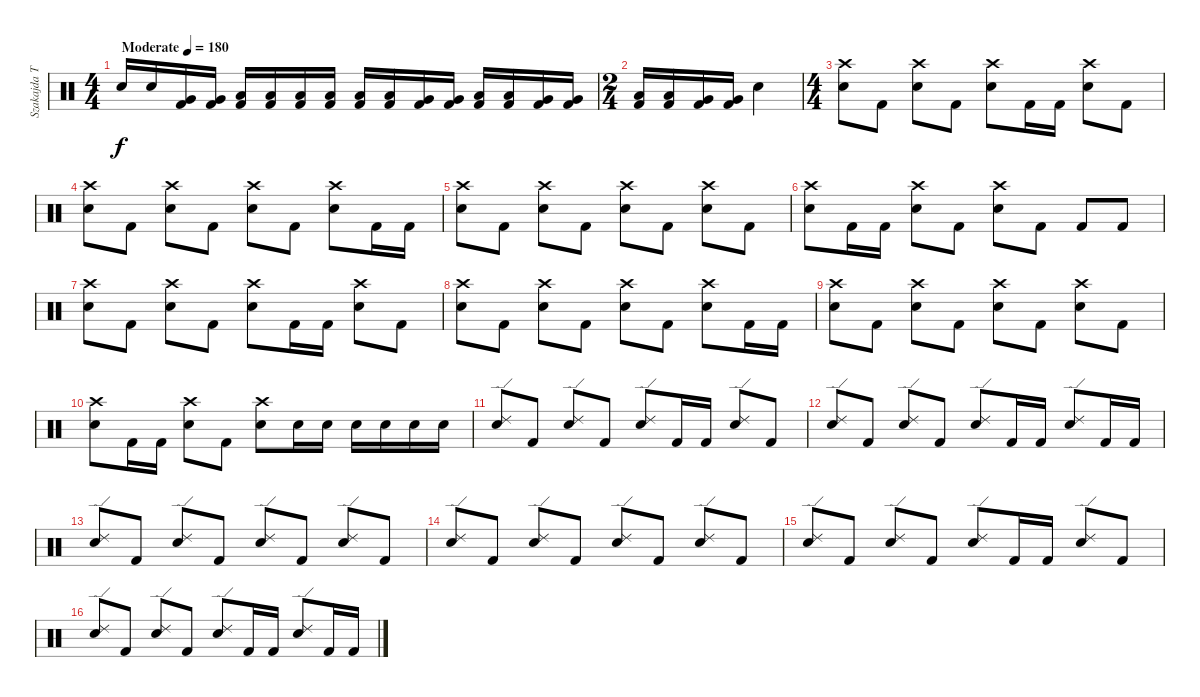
\track ("Szakajda Tibi" "Szakajda T") {instrument percussion}
\staff {score}
\articulation defaults
\ts (4 4)
\tempo (180 "Moderate")
\clef neutral
\ks c "Electric Snare (hit)".16{dy f} "Electric Snare (hit)".16
("Very Low Tom (hit)" "Kick (hit) 2").16 ("Very Low Tom (hit)" "Kick (hit) 2").16 ("Low Tom (hit)" "Kick (hit) 2").16 ("Low Tom (hit)" "Kick (hit) 2").16 ("Low Floor Tom (hit)" "Kick (hit) 2").16 ("Low Floor Tom (hit)" "Kick (hit) 2").16 ("Low Tom (hit)" "Kick (hit) 2").16 ("Low Tom (hit)" "Kick (hit) 2").16 ("Very Low Tom (hit)" "Kick (hit) 2").16 ("Very Low Tom (hit)" "Kick (hit) 2").16 ("Low Floor Tom (hit)" "Kick (hit) 2").16 ("Low Floor Tom (hit)" "Kick (hit) 2").16 ("Very Low Tom (hit)" "Kick (hit) 2").16 ("Very Low Tom (hit)" "Kick (hit) 2").16 |
\ts (2 4)
("Low Floor Tom (hit)" "Kick (hit) 2").16 ("Low Floor Tom (hit)" "Kick (hit) 2").16 ("Very Low Tom (hit)" "Kick (hit) 2").16 ("Very Low Tom (hit)" "Kick (hit) 2").16 "Electric Snare (hit)".4 |
\ts (4 4)
("Crash high (hit)" "Electric Snare (hit)").8 "Kick (hit) 2".8 ("Crash high (hit)" "Electric Snare (hit)").8 "Kick (hit) 2".8 ("Crash high (hit)" "Electric Snare (hit)").8 "Kick (hit) 2".16 "Kick (hit) 2".16 ("Crash high (hit)" "Electric Snare (hit)").8 "Kick (hit) 2".8 |
("Crash high (hit)" "Electric Snare (hit)").8 "Kick (hit) 2".8 ("Crash high (hit)" "Electric Snare (hit)").8 "Kick (hit) 2".8 ("Crash high (hit)" "Electric Snare (hit)").8 "Kick (hit) 2".8 ("Crash high (hit)" "Electric Snare (hit)").8 "Kick (hit) 2".16 "Kick (hit) 2".16 |
("Crash high (hit)" "Electric Snare (hit)").8 "Kick (hit) 2".8 ("Crash high (hit)" "Electric Snare (hit)").8 "Kick (hit) 2".8 ("Crash high (hit)" "Electric Snare (hit)").8 "Kick (hit) 2".8 ("Crash high (hit)" "Electric Snare (hit)").8 "Kick (hit) 2".8 |
("Crash high (hit)" "Electric Snare (hit)").8 "Kick (hit) 2".16 "Kick (hit) 2".16 ("Crash high (hit)" "Electric Snare (hit)").8 "Kick (hit) 2".8 ("Crash high (hit)" "Electric Snare (hit)").8 "Kick (hit) 2".8 "Kick (hit) 2".8 "Kick (hit) 2".8 |
("Crash high (hit)" "Electric Snare (hit)").8 "Kick (hit) 2".8 ("Crash high (hit)" "Electric Snare (hit)").8 "Kick (hit) 2".8 ("Crash high (hit)" "Electric Snare (hit)").8 "Kick (hit) 2".16 "Kick (hit) 2".16 ("Crash high (hit)" "Electric Snare (hit)").8 "Kick (hit) 2".8 |
("Crash high (hit)" "Electric Snare (hit)").8 "Kick (hit) 2".8 ("Crash high (hit)" "Electric Snare (hit)").8 "Kick (hit) 2".8 ("Crash high (hit)" "Electric Snare (hit)").8 "Kick (hit) 2".8 ("Crash high (hit)" "Electric Snare (hit)").8 "Kick (hit) 2".16 "Kick (hit) 2".16 |
("Crash high (hit)" "Electric Snare (hit)").8 "Kick (hit) 2".8 ("Crash high (hit)" "Electric Snare (hit)").8 "Kick (hit) 2".8 ("Crash high (hit)" "Electric Snare (hit)").8 "Kick (hit) 2".8 ("Crash high (hit)" "Electric Snare (hit)").8 "Kick (hit) 2".8 |
("Crash high (hit)" "Electric Snare (hit)").8 "Kick (hit) 2".16 "Kick (hit) 2".16 ("Crash high (hit)" "Electric Snare (hit)").8 "Kick (hit) 2".8 ("Crash high (hit)" "Electric Snare (hit)").8 "Electric Snare (hit)".16 "Electric Snare (hit)".16 "Electric Snare (hit)".16 "Electric Snare (hit)".16 "Electric Snare (hit)".16 "Electric Snare (hit)".16 |
("Ride (edge) 2" "Electric Snare (hit)").8 "Kick (hit) 2".8 ("Ride (edge) 2" "Electric Snare (hit)").8 "Kick (hit) 2".8 ("Ride (edge) 2" "Electric Snare (hit)").8 "Kick (hit) 2".16 "Kick (hit) 2".16 ("Ride (edge) 2" "Electric Snare (hit)").8 "Kick (hit) 2".8 |
("Ride (edge) 2" "Electric Snare (hit)").8 "Kick (hit) 2".8 ("Ride (edge) 2" "Electric Snare (hit)").8 "Kick (hit) 2".8 ("Ride (edge) 2" "Electric Snare (hit)").8 "Kick (hit) 2".16 "Kick (hit) 2".16 ("Ride (edge) 2" "Electric Snare (hit)").8 "Kick (hit) 2".16 "Kick (hit) 2".16 |
("Ride (edge) 2" "Electric Snare (hit)").8 "Kick (hit) 2".8 ("Ride (edge) 2" "Electric Snare (hit)").8 "Kick (hit) 2".8 ("Ride (edge) 2" "Electric Snare (hit)").8 "Kick (hit) 2".8 ("Ride (edge) 2" "Electric Snare (hit)").8 "Kick (hit) 2".8 |
("Ride (edge) 2" "Electric Snare (hit)").8 "Kick (hit) 2".8 ("Ride (edge) 2" "Electric Snare (hit)").8 "Kick (hit) 2".8 ("Ride (edge) 2" "Electric Snare (hit)").8 "Kick (hit) 2".8 ("Ride (edge) 2" "Electric Snare (hit)").8 "Kick (hit) 2".8 |
("Ride (edge) 2" "Electric Snare (hit)").8 "Kick (hit) 2".8 ("Ride (edge) 2" "Electric Snare (hit)").8 "Kick (hit) 2".8 ("Ride (edge) 2" "Electric Snare (hit)").8 "Kick (hit) 2".16 "Kick (hit) 2".16 ("Ride (edge) 2" "Electric Snare (hit)").8 "Kick (hit) 2".8 |
("Ride (edge) 2" "Electric Snare (hit)").8 "Kick (hit) 2".8 ("Ride (edge) 2" "Electric Snare (hit)").8 "Kick (hit) 2".8 ("Ride (edge) 2" "Electric Snare (hit)").8 "Kick (hit) 2".16 "Kick (hit) 2".16 ("Ride (edge) 2" "Electric Snare (hit)").8 "Kick (hit) 2".16 "Kick (hit) 2".16
